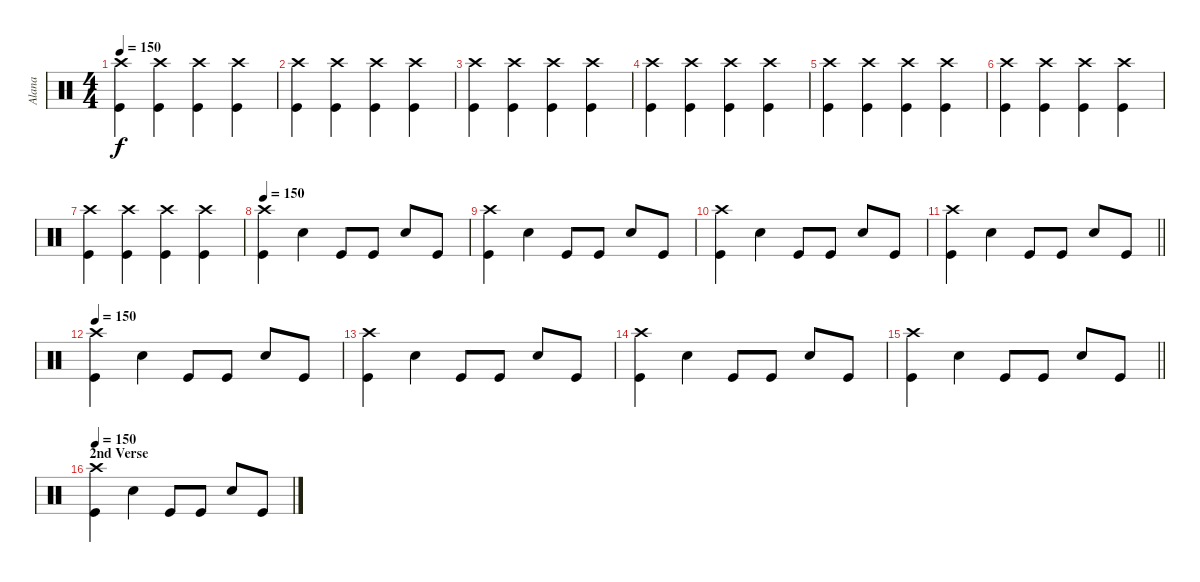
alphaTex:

\track ("Alana" "Alana") {instrument percussion}
\staff {score}
\articulation defaults
\ts (4 4)
\tempo 150
\clef neutral
\ks c
("Crash high (hit)" "Kick (hit)").4{dy f} ("Crash high (hit)" "Kick (hit)").4 ("Crash high (hit)" "Kick (hit)").4 ("Crash high (hit)" "Kick (hit)").4 |
("Crash high (hit)" "Kick (hit)").4 ("Crash high (hit)" "Kick (hit)").4 ("Crash high (hit)" "Kick (hit)").4 ("Crash high (hit)" "Kick (hit)").4 |
("Crash high (hit)" "Kick (hit)").4 ("Crash high (hit)" "Kick (hit)").4 ("Crash high (hit)" "Kick (hit)").4 ("Crash high (hit)" "Kick (hit)").4 |
("Crash high (hit)" "Kick (hit)").4 ("Crash high (hit)" "Kick (hit)").4 ("Crash high (hit)" "Kick (hit)").4 ("Crash high (hit)" "Kick (hit)").4 |
("Crash high (hit)" "Kick (hit)").4 ("Crash high (hit)" "Kick (hit)").4 ("Crash high (hit)" "Kick (hit)").4 ("Crash high (hit)" "Kick (hit)").4 |
("Crash high (hit)" "Kick (hit)").4 ("Crash high (hit)" "Kick (hit)").4 ("Crash high (hit)" "Kick (hit)").4 ("Crash high (hit)" "Kick (hit)").4 |
("Crash high (hit)" "Kick (hit)").4 ("Crash high (hit)" "Kick (hit)").4 ("Crash high (hit)" "Kick (hit)").4 ("Crash high (hit)" "Kick (hit)").4 |
\tempo 150
("Crash high (hit)" "Kick (hit)").4 "Electric Snare (hit)".4 "Kick (hit)".8 "Kick (hit)".8 "Electric Snare (hit)".8 "Kick (hit)".8 |
("Crash high (hit)" "Kick (hit)").4 "Electric Snare (hit)".4 "Kick (hit)".8 "Kick (hit)".8 "Electric Snare (hit)".8 "Kick (hit)".8 |
("Crash high (hit)" "Kick (hit)").4 "Electric Snare (hit)".4 "Kick (hit)".8 "Kick (hit)".8 "Electric Snare (hit)".8 "Kick (hit)".8 |
\barLineRight lightlight
("Crash high (hit)" "Kick (hit)").4 "Electric Snare (hit)".4 "Kick (hit)".8 "Kick (hit)".8 "Electric Snare (hit)".8 "Kick (hit)".8 |
\tempo 150
("Crash high (hit)" "Kick (hit)").4 "Electric Snare (hit)".4 "Kick (hit)".8 "Kick (hit)".8 "Electric Snare (hit)".8 "Kick (hit)".8 |
("Crash high (hit)" "Kick (hit)").4 "Electric Snare (hit)".4 "Kick (hit)".8 "Kick (hit)".8 "Electric Snare (hit)".8 "Kick (hit)".8 |
("Crash high (hit)" "Kick (hit)").4 "Electric Snare (hit)".4 "Kick (hit)".8 "Kick (hit)".8 "Electric Snare (hit)".8 "Kick (hit)".8 |
\barLineRight lightlight
("Crash high (hit)" "Kick (hit)").4 "Electric Snare (hit)".4 "Kick (hit)".8 "Kick (hit)".8 "Electric Snare (hit)".8 "Kick (hit)".8 |
\section ("" "2nd Verse")
\tempo 150
("Crash high (hit)" "Kick (hit)").4 "Electric Snare (hit)".4 "Kick (hit)".8 "Kick (hit)".8 "Electric Snare (hit)".8 "Kick (hit)".8
